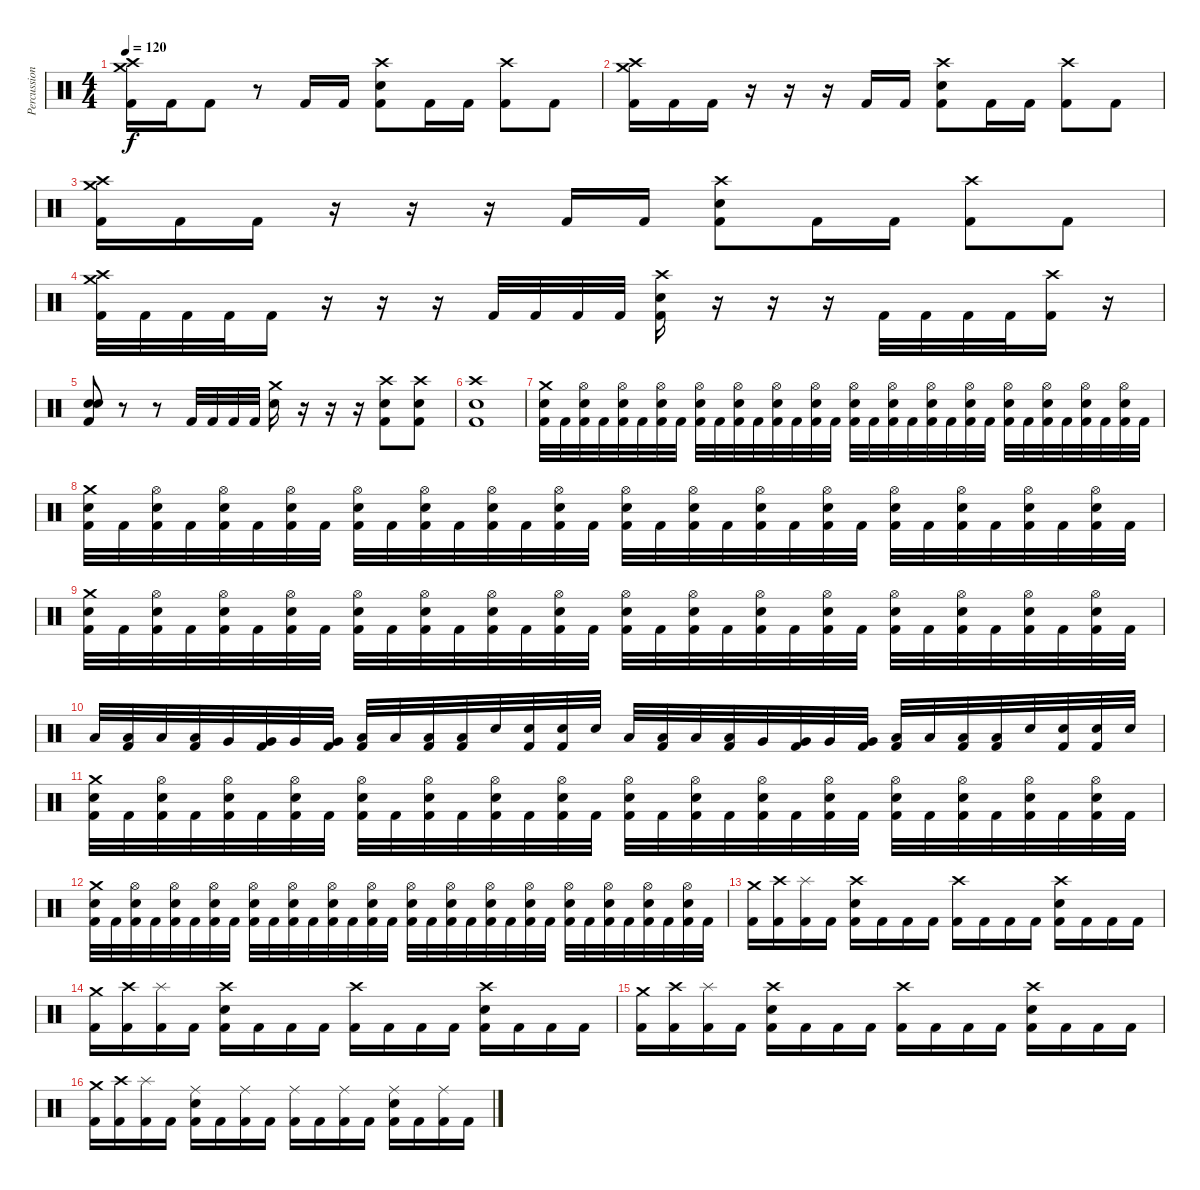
\track ("Percussion" "Percussion") {instrument percussion}
\staff {score}
\articulation defaults
\ts (4 4)
\tempo 120
\clef neutral
\ks c
("Crash medium (hit)" "Crash high (hit)" "Kick (hit) 2").16{dy f} "Kick (hit) 2".16 "Kick (hit) 2".8 r.8 "Kick (hit) 2".16 "Kick (hit) 2".16 ("Crash high (hit)" "Electric Snare (hit)" "Kick (hit) 2").8 "Kick (hit) 2".16 "Kick (hit) 2".16 ("Crash high (hit)" "Kick (hit) 2").8 "Kick (hit) 2".8 |
("Crash medium (hit)" "Crash high (hit)" "Kick (hit) 2").16 "Kick (hit) 2".16 "Kick (hit) 2".16 r.16 r.16 r.16 "Kick (hit) 2".16 "Kick (hit) 2".16 ("Crash high (hit)" "Electric Snare (hit)" "Kick (hit) 2").8 "Kick (hit) 2".16 "Kick (hit) 2".16 ("Crash high (hit)" "Kick (hit) 2").8 "Kick (hit) 2".8 |
("Crash medium (hit)" "Crash high (hit)" "Kick (hit) 2").16 "Kick (hit) 2".16 "Kick (hit) 2".16 r.16 r.16 r.16 "Kick (hit) 2".16 "Kick (hit) 2".16 ("Crash high (hit)" "Electric Snare (hit)" "Kick (hit) 2").8 "Kick (hit) 2".16 "Kick (hit) 2".16 ("Crash high (hit)" "Kick (hit) 2").8 "Kick (hit) 2".8 |
("Crash medium (hit)" "Crash high (hit)" "Kick (hit) 2").32 "Kick (hit) 2".32 "Kick (hit) 2".32 "Kick (hit) 2".32 "Kick (hit) 2".16 r.16 r.16 r.16 "Kick (hit) 2".32 "Kick (hit) 2".32 "Kick (hit) 2".32 "Kick (hit) 2".32 ("Crash high (hit)" "Electric Snare (hit)" "Kick (hit) 2").16 r.16 r.16 r.16 "Kick (hit) 2".32 "Kick (hit) 2".32 "Kick (hit) 2".32 "Kick (hit) 2".32 ("Crash high (hit)" "Kick (hit) 2").16 r.16 |
("Electric Snare (hit)" "Electric Snare (hit)" "Kick (hit) 2").8 r.8 r.8 "Kick (hit) 2".32 "Kick (hit) 2".32 "Kick (hit) 2".32 "Kick (hit) 2".32 ("Crash medium (hit)" "Electric Snare (hit)").16 r.16 r.16 r.16 ("Crash high (hit)" "Electric Snare (hit)" "Kick (hit) 2").8 ("Crash high (hit)" "Electric Snare (hit)" "Kick (hit) 2").8 |
("Crash high (hit)" "Electric Snare (hit)" "Kick (hit) 2").1 |
("Crash medium (hit)" "Electric Snare (hit)" "Kick (hit) 2").32 "Kick (hit) 2".32 ("Hi-Hat (open)" "Electric Snare (hit)" "Kick (hit) 2").32 "Kick (hit) 2".32 ("Hi-Hat (open)" "Electric Snare (hit)" "Kick (hit) 2").32 "Kick (hit) 2".32 ("Hi-Hat (open)" "Electric Snare (hit)" "Kick (hit) 2").32 "Kick (hit) 2".32 ("Hi-Hat (open)" "Electric Snare (hit)" "Kick (hit) 2").32 "Kick (hit) 2".32 ("Hi-Hat (open)" "Electric Snare (hit)" "Kick (hit) 2").32 "Kick (hit) 2".32 ("Hi-Hat (open)" "Electric Snare (hit)" "Kick (hit) 2").32 "Kick (hit) 2".32 ("Hi-Hat (open)" "Electric Snare (hit)" "Kick (hit) 2").32 "Kick (hit) 2".32 ("Hi-Hat (open)" "Electric Snare (hit)" "Kick (hit) 2").32 "Kick (hit) 2".32 ("Hi-Hat (open)" "Electric Snare (hit)" "Kick (hit) 2").32 "Kick (hit) 2".32 ("Hi-Hat (open)" "Electric Snare (hit)" "Kick (hit) 2").32 "Kick (hit) 2".32 ("Hi-Hat (open)" "Electric Snare (hit)" "Kick (hit) 2").32 "Kick (hit) 2".32 ("Hi-Hat (open)" "Electric Snare (hit)" "Kick (hit) 2").32 "Kick (hit) 2".32 ("Hi-Hat (open)" "Electric Snare (hit)" "Kick (hit) 2").32 "Kick (hit) 2".32 ("Hi-Hat (open)" "Electric Snare (hit)" "Kick (hit) 2").32 "Kick (hit) 2".32 ("Hi-Hat (open)" "Electric Snare (hit)" "Kick (hit) 2").32 "Kick (hit) 2".32 |
("Crash medium (hit)" "Electric Snare (hit)" "Kick (hit) 2").32 "Kick (hit) 2".32 ("Hi-Hat (open)" "Electric Snare (hit)" "Kick (hit) 2").32 "Kick (hit) 2".32 ("Hi-Hat (open)" "Electric Snare (hit)" "Kick (hit) 2").32 "Kick (hit) 2".32 ("Hi-Hat (open)" "Electric Snare (hit)" "Kick (hit) 2").32 "Kick (hit) 2".32 ("Hi-Hat (open)" "Electric Snare (hit)" "Kick (hit) 2").32 "Kick (hit) 2".32 ("Hi-Hat (open)" "Electric Snare (hit)" "Kick (hit) 2").32 "Kick (hit) 2".32 ("Hi-Hat (open)" "Electric Snare (hit)" "Kick (hit) 2").32 "Kick (hit) 2".32 ("Hi-Hat (open)" "Electric Snare (hit)" "Kick (hit) 2").32 "Kick (hit) 2".32 ("Hi-Hat (open)" "Electric Snare (hit)" "Kick (hit) 2").32 "Kick (hit) 2".32 ("Hi-Hat (open)" "Electric Snare (hit)" "Kick (hit) 2").32 "Kick (hit) 2".32 ("Hi-Hat (open)" "Electric Snare (hit)" "Kick (hit) 2").32 "Kick (hit) 2".32 ("Hi-Hat (open)" "Electric Snare (hit)" "Kick (hit) 2").32 "Kick (hit) 2".32 ("Hi-Hat (open)" "Electric Snare (hit)" "Kick (hit) 2").32 "Kick (hit) 2".32 ("Hi-Hat (open)" "Electric Snare (hit)" "Kick (hit) 2").32 "Kick (hit) 2".32 ("Hi-Hat (open)" "Electric Snare (hit)" "Kick (hit) 2").32 "Kick (hit) 2".32 ("Hi-Hat (open)" "Electric Snare (hit)" "Kick (hit) 2").32 "Kick (hit) 2".32 |
("Crash medium (hit)" "Electric Snare (hit)" "Kick (hit) 2").32 "Kick (hit) 2".32 ("Hi-Hat (open)" "Electric Snare (hit)" "Kick (hit) 2").32 "Kick (hit) 2".32 ("Hi-Hat (open)" "Electric Snare (hit)" "Kick (hit) 2").32 "Kick (hit) 2".32 ("Hi-Hat (open)" "Electric Snare (hit)" "Kick (hit) 2").32 "Kick (hit) 2".32 ("Hi-Hat (open)" "Electric Snare (hit)" "Kick (hit) 2").32 "Kick (hit) 2".32 ("Hi-Hat (open)" "Electric Snare (hit)" "Kick (hit) 2").32 "Kick (hit) 2".32 ("Hi-Hat (open)" "Electric Snare (hit)" "Kick (hit) 2").32 "Kick (hit) 2".32 ("Hi-Hat (open)" "Electric Snare (hit)" "Kick (hit) 2").32 "Kick (hit) 2".32 ("Hi-Hat (open)" "Electric Snare (hit)" "Kick (hit) 2").32 "Kick (hit) 2".32 ("Hi-Hat (open)" "Electric Snare (hit)" "Kick (hit) 2").32 "Kick (hit) 2".32 ("Hi-Hat (open)" "Electric Snare (hit)" "Kick (hit) 2").32 "Kick (hit) 2".32 ("Hi-Hat (open)" "Electric Snare (hit)" "Kick (hit) 2").32 "Kick (hit) 2".32 ("Hi-Hat (open)" "Electric Snare (hit)" "Kick (hit) 2").32 "Kick (hit) 2".32 ("Hi-Hat (open)" "Electric Snare (hit)" "Kick (hit) 2").32 "Kick (hit) 2".32 ("Hi-Hat (open)" "Electric Snare (hit)" "Kick (hit) 2").32 "Kick (hit) 2".32 ("Hi-Hat (open)" "Electric Snare (hit)" "Kick (hit) 2").32 "Kick (hit) 2".32 |
"Low Floor Tom (hit)".32 ("Low Floor Tom (hit)" "Kick (hit) 2").32 "Low Floor Tom (hit)".32 ("Low Floor Tom (hit)" "Kick (hit) 2").32 "Very Low Tom (hit)".32 ("Very Low Tom (hit)" "Kick (hit) 2").32 "Very Low Tom (hit)".32 ("Very Low Tom (hit)" "Kick (hit) 2").32 ("Low Tom (hit)" "Kick (hit) 2").32 "Low Tom (hit)".32 ("Low Tom (hit)" "Kick (hit) 2").32 ("Low Tom (hit)" "Kick (hit) 2").32 "Electric Snare (hit)".32 ("Electric Snare (hit)" "Kick (hit) 2").32 ("Electric Snare (hit)" "Kick (hit) 2").32 "Electric Snare (hit)".32 "Low Floor Tom (hit)".32 ("Low Floor Tom (hit)" "Kick (hit) 2").32 "Low Floor Tom (hit)".32 ("Low Floor Tom (hit)" "Kick (hit) 2").32 "Very Low Tom (hit)".32 ("Very Low Tom (hit)" "Kick (hit) 2").32 "Very Low Tom (hit)".32 ("Very Low Tom (hit)" "Kick (hit) 2").32 ("Low Tom (hit)" "Kick (hit) 2").32 "Low Tom (hit)".32 ("Low Tom (hit)" "Kick (hit) 2").32 ("Low Tom (hit)" "Kick (hit) 2").32 "Electric Snare (hit)".32 ("Electric Snare (hit)" "Kick (hit) 2").32 ("Electric Snare (hit)" "Kick (hit) 2").32 "Electric Snare (hit)".32 |
("Crash medium (hit)" "Electric Snare (hit)" "Kick (hit) 2").32 "Kick (hit) 2".32 ("Hi-Hat (open)" "Electric Snare (hit)" "Kick (hit) 2").32 "Kick (hit) 2".32 ("Hi-Hat (open)" "Electric Snare (hit)" "Kick (hit) 2").32 "Kick (hit) 2".32 ("Hi-Hat (open)" "Electric Snare (hit)" "Kick (hit) 2").32 "Kick (hit) 2".32 ("Hi-Hat (open)" "Electric Snare (hit)" "Kick (hit) 2").32 "Kick (hit) 2".32 ("Hi-Hat (open)" "Electric Snare (hit)" "Kick (hit) 2").32 "Kick (hit) 2".32 ("Hi-Hat (open)" "Electric Snare (hit)" "Kick (hit) 2").32 "Kick (hit) 2".32 ("Hi-Hat (open)" "Electric Snare (hit)" "Kick (hit) 2").32 "Kick (hit) 2".32 ("Hi-Hat (open)" "Electric Snare (hit)" "Kick (hit) 2").32 "Kick (hit) 2".32 ("Hi-Hat (open)" "Electric Snare (hit)" "Kick (hit) 2").32 "Kick (hit) 2".32 ("Hi-Hat (open)" "Electric Snare (hit)" "Kick (hit) 2").32 "Kick (hit) 2".32 ("Hi-Hat (open)" "Electric Snare (hit)" "Kick (hit) 2").32 "Kick (hit) 2".32 ("Hi-Hat (open)" "Electric Snare (hit)" "Kick (hit) 2").32 "Kick (hit) 2".32 ("Hi-Hat (open)" "Electric Snare (hit)" "Kick (hit) 2").32 "Kick (hit) 2".32 ("Hi-Hat (open)" "Electric Snare (hit)" "Kick (hit) 2").32 "Kick (hit) 2".32 ("Hi-Hat (open)" "Electric Snare (hit)" "Kick (hit) 2").32 "Kick (hit) 2".32 |
("Crash medium (hit)" "Electric Snare (hit)" "Kick (hit) 2").32 "Kick (hit) 2".32 ("Hi-Hat (open)" "Electric Snare (hit)" "Kick (hit) 2").32 "Kick (hit) 2".32 ("Hi-Hat (open)" "Electric Snare (hit)" "Kick (hit) 2").32 "Kick (hit) 2".32 ("Hi-Hat (open)" "Electric Snare (hit)" "Kick (hit) 2").32 "Kick (hit) 2".32 ("Hi-Hat (open)" "Electric Snare (hit)" "Kick (hit) 2").32 "Kick (hit) 2".32 ("Hi-Hat (open)" "Electric Snare (hit)" "Kick (hit) 2").32 "Kick (hit) 2".32 ("Hi-Hat (open)" "Electric Snare (hit)" "Kick (hit) 2").32 "Kick (hit) 2".32 ("Hi-Hat (open)" "Electric Snare (hit)" "Kick (hit) 2").32 "Kick (hit) 2".32 ("Hi-Hat (open)" "Electric Snare (hit)" "Kick (hit) 2").32 "Kick (hit) 2".32 ("Hi-Hat (open)" "Electric Snare (hit)" "Kick (hit) 2").32 "Kick (hit) 2".32 ("Hi-Hat (open)" "Electric Snare (hit)" "Kick (hit) 2").32 "Kick (hit) 2".32 ("Hi-Hat (open)" "Electric Snare (hit)" "Kick (hit) 2").32 "Kick (hit) 2".32 ("Hi-Hat (open)" "Electric Snare (hit)" "Kick (hit) 2").32 "Kick (hit) 2".32 ("Hi-Hat (open)" "Electric Snare (hit)" "Kick (hit) 2").32 "Kick (hit) 2".32 ("Hi-Hat (open)" "Electric Snare (hit)" "Kick (hit) 2").32 "Kick (hit) 2".32 ("Hi-Hat (open)" "Electric Snare (hit)" "Kick (hit) 2").32 "Kick (hit) 2".32 |
("Crash medium (hit)" "Kick (hit) 2").16 ("Crash high (hit)" "Kick (hit) 2").16 ("Splash (hit)" "Kick (hit) 2").16 "Kick (hit) 2".16 ("Crash high (hit)" "Electric Snare (hit)" "Kick (hit) 2").16 "Kick (hit) 2".16 "Kick (hit) 2".16 "Kick (hit) 2".16 ("Crash high (hit)" "Kick (hit) 2").16 "Kick (hit) 2".16 "Kick (hit) 2".16 "Kick (hit) 2".16 ("Crash high (hit)" "Electric Snare (hit)" "Kick (hit) 2").16 "Kick (hit) 2".16 "Kick (hit) 2".16 "Kick (hit) 2".16 |
("Crash medium (hit)" "Kick (hit) 2").16 ("Crash high (hit)" "Kick (hit) 2").16 ("Splash (hit)" "Kick (hit) 2").16 "Kick (hit) 2".16 ("Crash high (hit)" "Electric Snare (hit)" "Kick (hit) 2").16 "Kick (hit) 2".16 "Kick (hit) 2".16 "Kick (hit) 2".16 ("Crash high (hit)" "Kick (hit) 2").16 "Kick (hit) 2".16 "Kick (hit) 2".16 "Kick (hit) 2".16 ("Crash high (hit)" "Electric Snare (hit)" "Kick (hit) 2").16 "Kick (hit) 2".16 "Kick (hit) 2".16 "Kick (hit) 2".16 |
("Crash medium (hit)" "Kick (hit) 2").16 ("Crash high (hit)" "Kick (hit) 2").16 ("Splash (hit)" "Kick (hit) 2").16 "Kick (hit) 2".16 ("Crash high (hit)" "Electric Snare (hit)" "Kick (hit) 2").16 "Kick (hit) 2".16 "Kick (hit) 2".16 "Kick (hit) 2".16 ("Crash high (hit)" "Kick (hit) 2").16 "Kick (hit) 2".16 "Kick (hit) 2".16 "Kick (hit) 2".16 ("Crash high (hit)" "Electric Snare (hit)" "Kick (hit) 2").16 "Kick (hit) 2".16 "Kick (hit) 2".16 "Kick (hit) 2".16 |
("Crash medium (hit)" "Kick (hit) 2").16 ("Crash high (hit)" "Kick (hit) 2").16 ("Splash (hit)" "Kick (hit) 2").16 "Kick (hit) 2".16 ("Ride (middle)" "Electric Snare (hit)" "Kick (hit) 2").16 "Kick (hit) 2".16 ("Ride (middle)" "Kick (hit) 2").16 "Kick (hit) 2".16 ("Ride (middle)" "Kick (hit) 2").16 "Kick (hit) 2".16 ("Ride (middle)" "Kick (hit) 2").16 "Kick (hit) 2".16 ("Ride (middle)" "Electric Snare (hit)" "Kick (hit) 2").16 "Kick (hit) 2".16 ("Ride (middle)" "Kick (hit) 2").16 "Kick (hit) 2".16
